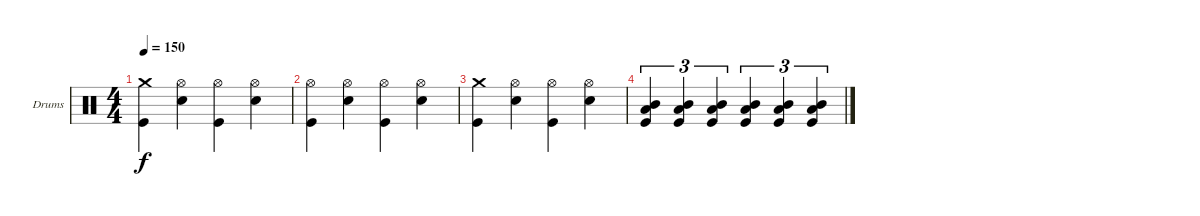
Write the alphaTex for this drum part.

\defaultSystemsLayout 4
\bracketExtendMode groupsimilarinstruments
\firstSystemTrackNameOrientation horizontal
\otherSystemsTrackNameOrientation horizontal
\track ("Drumkit" "Drums") {instrument percussion}
\staff {score}
\articulation defaults
\ts (4 4)
\tempo 150
\clef neutral
\ks c
("Kick (hit)" "Crash medium (hit)").4{dy f} ("Hi-Hat (open)" "Snare (hit) 2").4 ("Hi-Hat (open)" "Kick (hit)").4 ("Hi-Hat (open)" "Snare (hit) 2").4 |
("Hi-Hat (open)" "Kick (hit)").4 ("Snare (hit) 2" "Hi-Hat (open)").4 ("Kick (hit)" "Hi-Hat (open)").4 ("Snare (hit) 2" "Hi-Hat (open)").4 |
("Kick (hit)" "Crash medium (hit)").4 ("Hi-Hat (open)" "Snare (hit) 2").4 ("Hi-Hat (open)" "Kick (hit)").4 ("Hi-Hat (open)" "Snare (hit) 2").4 |
("Kick (hit)" "Low Tom (hit)" "Mid Tom (hit)").4{tu (3 2)} ("Kick (hit)" "Mid Tom (hit)" "Low Tom (hit)").4{tu (3 2)} ("Kick (hit)" "Low Tom (hit)" "Mid Tom (hit)").4{tu (3 2)} ("Kick (hit)" "Low Tom (hit)" "Mid Tom (hit)").4{tu (3 2)} ("Kick (hit)" "Low Tom (hit)" "Mid Tom (hit)").4{tu (3 2)} ("Kick (hit)" "Low Tom (hit)" "Mid Tom (hit)").4{tu (3 2)}
